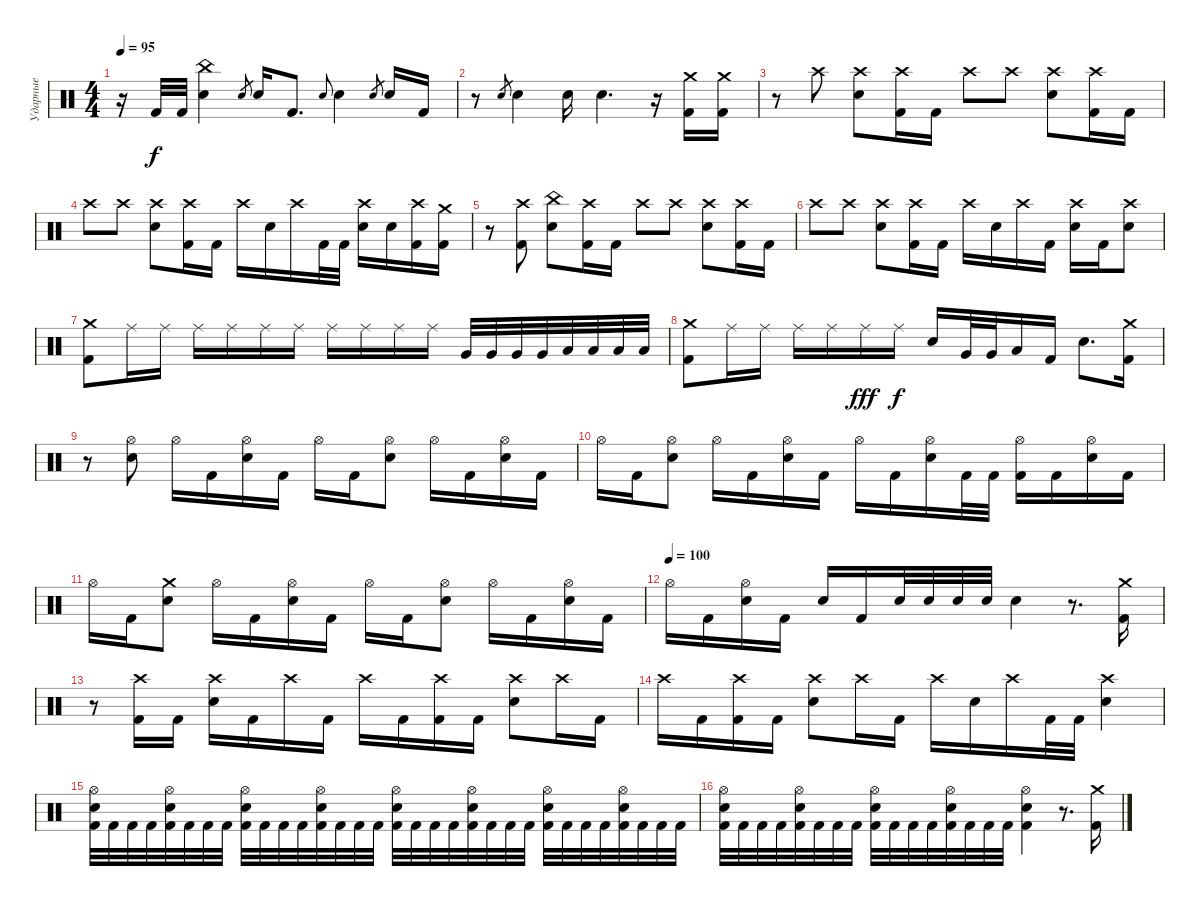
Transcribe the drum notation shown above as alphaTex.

\track ("Ударные" "Ударные") {instrument percussion}
\staff {score}
\articulation defaults
\ts (4 4)
\tempo 95
\clef neutral
\ks c
r.16{dy f} "Kick (hit) 2".32 "Kick (hit) 2".32 ("China (hit)" "Snare (hit) 2").4 "Snare (hit) 2".8{gr} "Snare (hit) 2".16 "Kick (hit) 2".8{d} "Snare (hit) 2".8{gr onbeat} "Snare (hit) 2".4 "Snare (hit) 2".8{gr} "Snare (hit) 2".16 "Kick (hit) 2".16 |
r.8 "Snare (hit) 2".8{gr} "Snare (hit) 2".4 "Snare (hit) 2".16 "Snare (hit) 2".4{d} r.16 ("Crash medium (hit)" "Kick (hit) 2").16 ("Crash medium (hit)" "Kick (hit) 2").16 |
r.8 "Crash high (hit)".8 ("Crash high (hit)" "Snare (hit) 2").8 ("Crash high (hit)" "Kick (hit) 2").16 "Kick (hit) 2".16 "Crash high (hit)".8 "Crash high (hit)".8 ("Crash high (hit)" "Snare (hit) 2").8 ("Crash high (hit)" "Kick (hit) 2").16 "Kick (hit) 2".16 |
"Crash high (hit)".8 "Crash high (hit)".8 ("Crash high (hit)" "Snare (hit) 2").8 ("Crash high (hit)" "Kick (hit) 2").16 "Kick (hit) 2".16 "Crash high (hit)".16 "Snare (hit) 2".16 "Crash high (hit)".16 "Kick (hit) 2".32 "Kick (hit) 2".32 ("Crash high (hit)" "Snare (hit) 2").16 "Snare (hit) 2".16 ("Crash high (hit)" "Kick (hit) 2").16 ("Crash medium (hit)" "Kick (hit) 2").16 |
r.8 ("Crash high (hit)" "Kick (hit) 2").8 ("China (hit)" "Snare (hit) 2").8 ("Crash high (hit)" "Kick (hit) 2").16 "Kick (hit) 2".16 "Crash high (hit)".8 "Crash high (hit)".8 ("Crash high (hit)" "Snare (hit) 2").8 ("Crash high (hit)" "Kick (hit) 2").16 "Kick (hit) 2".16 |
"Crash high (hit)".8 "Crash high (hit)".8 ("Crash high (hit)" "Snare (hit) 2").8 ("Crash high (hit)" "Kick (hit) 2").16 "Kick (hit) 2".16 "Crash high (hit)".16 "Snare (hit) 2".16 "Crash high (hit)".16 "Kick (hit) 2".16 ("Crash high (hit)" "Snare (hit) 2").16 "Kick (hit) 2".16 ("Crash high (hit)" "Snare (hit) 2").8 |
("Crash medium (hit)" "Kick (hit) 2").8 "Ride (middle)".16 "Ride (middle)".16 "Ride (middle)".16 "Ride (middle)".16 "Ride (middle)".16 "Ride (middle)".16 "Ride (middle)".16 "Ride (middle)".16 "Ride (middle)".16 "Ride (middle)".16 "Very Low Tom (hit)".32 "Very Low Tom (hit)".32 "Very Low Tom (hit)".32 "Very Low Tom (hit)".32 "Low Floor Tom (hit)".32 "Low Floor Tom (hit)".32 "Low Floor Tom (hit)".32 "Low Floor Tom (hit)".32 |
("Crash medium (hit)" "Kick (hit) 2").8 "Ride (middle)".16 "Ride (middle)".16 "Ride (middle)".16 "Ride (middle)".16 "Ride (middle)".16{dy fff} "Ride (middle)".16{dy f} "Snare (hit) 2".16 "Very Low Tom (hit)".32 "Very Low Tom (hit)".32 "Low Floor Tom (hit)".16 "Kick (hit) 2".16 "Snare (hit) 2".8{d} ("Crash medium (hit)" "Kick (hit) 2").16 |
r.8 ("Hi-Hat (open)" "Snare (hit) 2").8 "Hi-Hat (open)".16 "Kick (hit) 2".16 ("Hi-Hat (open)" "Snare (hit) 2").16 "Kick (hit) 2".16 "Hi-Hat (open)".16 "Kick (hit) 2".16 ("Hi-Hat (open)" "Snare (hit) 2").8 "Hi-Hat (open)".16 "Kick (hit) 2".16 ("Hi-Hat (open)" "Snare (hit) 2").16 "Kick (hit) 2".16 |
"Hi-Hat (open)".16 "Kick (hit) 2".16 ("Hi-Hat (open)" "Snare (hit) 2").8 "Hi-Hat (open)".16 "Kick (hit) 2".16 ("Hi-Hat (open)" "Snare (hit) 2").16 "Kick (hit) 2".16 "Hi-Hat (open)".16 "Kick (hit) 2".16 ("Hi-Hat (open)" "Snare (hit) 2").16 "Kick (hit) 2".32 "Kick (hit) 2".32 ("Hi-Hat (open)" "Kick (hit) 2").16 "Kick (hit) 2".16 ("Hi-Hat (open)" "Snare (hit) 2").16 "Kick (hit) 2".16 |
"Hi-Hat (open)".16 "Kick (hit) 2".16 ("Crash medium (hit)" "Snare (hit) 2").8 "Hi-Hat (open)".16 "Kick (hit) 2".16 ("Hi-Hat (open)" "Snare (hit) 2").16 "Kick (hit) 2".16 "Hi-Hat (open)".16 "Kick (hit) 2".16 ("Hi-Hat (open)" "Snare (hit) 2").8 "Hi-Hat (open)".16 "Kick (hit) 2".16 ("Hi-Hat (open)" "Snare (hit) 2").16 "Kick (hit) 2".16 |
\tempo (100)
"Hi-Hat (open)".16 "Kick (hit) 2".16 ("Hi-Hat (open)" "Snare (hit) 2").16 "Kick (hit) 2".16 "Snare (hit) 2".16 "Kick (hit) 2".16 "Snare (hit) 2".32 "Snare (hit) 2".32 "Snare (hit) 2".32 "Snare (hit) 2".32 "Snare (hit) 2".4 r.8{d} ("Crash medium (hit)" "Kick (hit) 2").16 |
r.8 ("Crash high (hit)" "Kick (hit) 2").16 "Kick (hit) 2".16 ("Crash high (hit)" "Snare (hit) 2").16 "Kick (hit) 2".16 "Crash high (hit)".16 "Kick (hit) 2".16 "Crash high (hit)".16 "Kick (hit) 2".16 ("Crash high (hit)" "Kick (hit) 2").16 "Kick (hit) 2".16 ("Crash high (hit)" "Snare (hit) 2").8 "Crash high (hit)".16 "Kick (hit) 2".16 |
"Crash high (hit)".16 "Kick (hit) 2".16 ("Crash high (hit)" "Kick (hit) 2").16 "Kick (hit) 2".16 ("Crash high (hit)" "Snare (hit) 2").8 "Crash high (hit)".16 "Kick (hit) 2".16 "Crash high (hit)".16 "Snare (hit) 2".16 "Crash high (hit)".16 "Kick (hit) 2".32 "Kick (hit) 2".32 ("Crash high (hit)" "Snare (hit) 2").4 |
("Hi-Hat (open)" "Kick (hit) 2" "Snare (hit) 2").32 "Kick (hit) 2".32 "Kick (hit) 2".32 "Kick (hit) 2".32 ("Hi-Hat (open)" "Kick (hit) 2" "Snare (hit) 2").32 "Kick (hit) 2".32 "Kick (hit) 2".32 "Kick (hit) 2".32 ("Hi-Hat (open)" "Kick (hit) 2" "Snare (hit) 2").32 "Kick (hit) 2".32 "Kick (hit) 2".32 "Kick (hit) 2".32 ("Hi-Hat (open)" "Kick (hit) 2" "Snare (hit) 2").32 "Kick (hit) 2".32 "Kick (hit) 2".32 "Kick (hit) 2".32 ("Hi-Hat (open)" "Kick (hit) 2" "Snare (hit) 2").32 "Kick (hit) 2".32 "Kick (hit) 2".32 "Kick (hit) 2".32 ("Hi-Hat (open)" "Kick (hit) 2" "Snare (hit) 2").32 "Kick (hit) 2".32 "Kick (hit) 2".32 "Kick (hit) 2".32 ("Hi-Hat (open)" "Kick (hit) 2" "Snare (hit) 2").32 "Kick (hit) 2".32 "Kick (hit) 2".32 "Kick (hit) 2".32 ("Hi-Hat (open)" "Kick (hit) 2" "Snare (hit) 2").32 "Kick (hit) 2".32 "Kick (hit) 2".32 "Kick (hit) 2".32 |
("Hi-Hat (open)" "Kick (hit) 2" "Snare (hit) 2").32 "Kick (hit) 2".32 "Kick (hit) 2".32 "Kick (hit) 2".32 ("Hi-Hat (open)" "Kick (hit) 2" "Snare (hit) 2").32 "Kick (hit) 2".32 "Kick (hit) 2".32 "Kick (hit) 2".32 ("Hi-Hat (open)" "Kick (hit) 2" "Snare (hit) 2").32 "Kick (hit) 2".32 "Kick (hit) 2".32 "Kick (hit) 2".32 ("Hi-Hat (open)" "Kick (hit) 2" "Snare (hit) 2").32 "Kick (hit) 2".32 "Kick (hit) 2".32 "Kick (hit) 2".32 ("Hi-Hat (open)" "Kick (hit) 2" "Snare (hit) 2").4 r.8{d} ("Crash medium (hit)" "Kick (hit) 2").16
